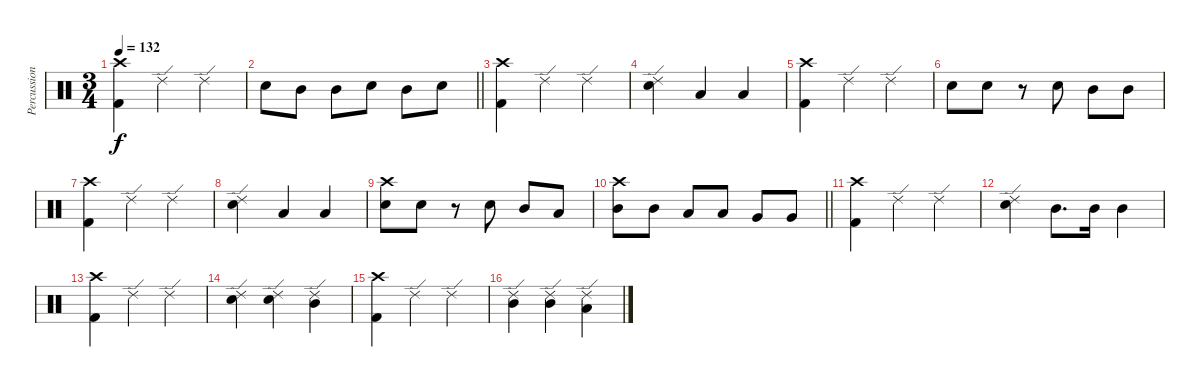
\track ("Percussion" "Percussion") {instrument percussion}
\staff {score}
\articulation defaults
\ts (3 4)
\tempo 132
\clef neutral
\ks c
("Crash high (hit)" "Kick (hit) 2").4{dy f} "Ride (edge) 2".4 "Ride (edge) 2".4 |
\barLineRight lightlight "Snare (hit) 2".8 "Mid Tom (hit)".8 "Mid Tom (hit)".8 "Snare (hit) 2".8 "Mid Tom (hit)".8 "Snare (hit) 2".8
|
("Crash high (hit)" "Kick (hit) 2").4 "Ride (edge) 2".4 "Ride (edge) 2".4 |
("Ride (edge) 2" "Snare (hit) 2").4 "Low Tom (hit)".4 "Low Tom (hit)".4 |
("Crash high (hit)" "Kick (hit) 2").4 "Ride (edge) 2".4 "Ride (edge) 2".4 |
"Snare (hit) 2".8 "Snare (hit) 2".8 r.8 "Snare (hit) 2".8 "Mid Tom (hit)".8 "Mid Tom (hit)".8 |
("Crash high (hit)" "Kick (hit) 2").4 "Ride (edge) 2".4 "Ride (edge) 2".4 |
("Ride (edge) 2" "Snare (hit) 2").4 "Low Tom (hit)".4 "Low Tom (hit)".4 |
("Snare (hit) 2" "Crash high (hit)").8 "Snare (hit) 2".8 r.8 "Snare (hit) 2".8 "Mid Tom (hit)".8 "Low Tom (hit)".8 |
\barLineRight lightlight
("Crash high (hit)" "Mid Tom (hit)").8 "Mid Tom (hit)".8 "Low Tom (hit)".8 "Low Tom (hit)".8 "Very Low Tom (hit)".8 "Very Low Tom (hit)".8 |
("Crash high (hit)" "Kick (hit) 2").4 "Ride (edge) 2".4 "Ride (edge) 2".4 |
("Ride (edge) 2" "Snare (hit) 2").4 "Mid Tom (hit)".8{d} "Mid Tom (hit)".16 "Mid Tom (hit)".4 |
("Crash high (hit)" "Kick (hit) 2").4 "Ride (edge) 2".4 "Ride (edge) 2".4 |
("Ride (edge) 2" "Snare (hit) 2").4 ("Ride (edge) 2" "Snare (hit) 2").4 ("Ride (edge) 2" "Mid Tom (hit)").4 |
("Crash high (hit)" "Kick (hit) 2").4 "Ride (edge) 2".4 "Ride (edge) 2".4 |
("Ride (edge) 2" "Mid Tom (hit)").4 ("Ride (edge) 2" "Mid Tom (hit)").4 ("Ride (edge) 2" "Low Tom (hit)").4
